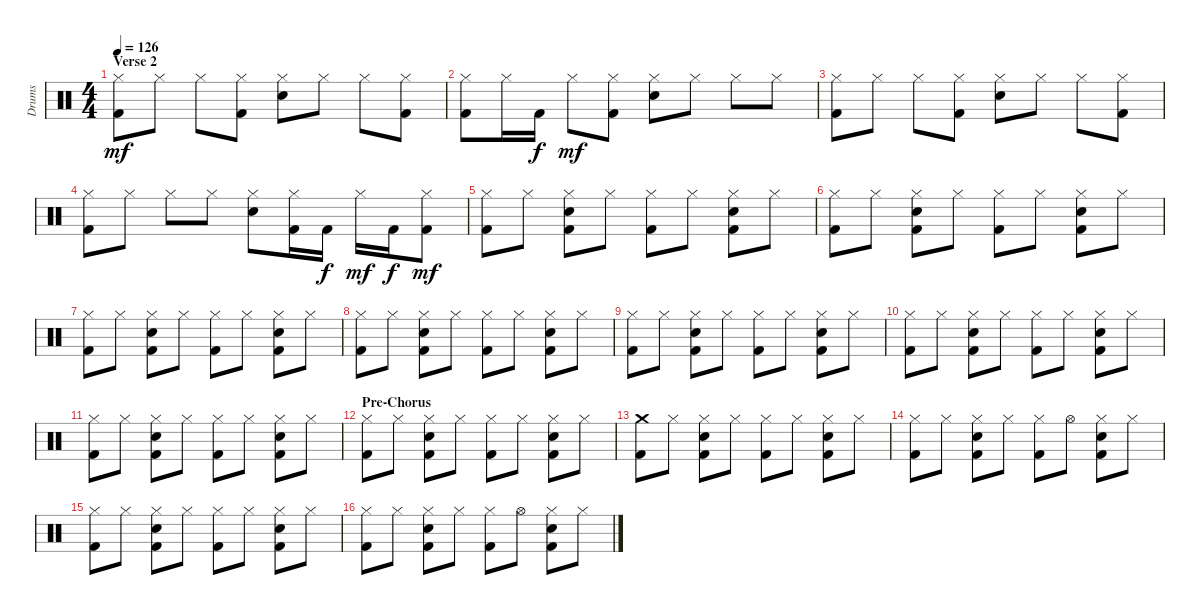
\track ("Drums" "Drums") {instrument percussion}
\staff {score}
\articulation defaults
\ts (4 4)
\section ("" "Verse 2")
\tempo 126
\clef neutral
\ks c
("Hi-Hat (closed)" "Kick (hit) 2").8{dy mf} "Hi-Hat (closed)".8 "Hi-Hat (closed)".8 ("Hi-Hat (closed)" "Kick (hit) 2").8 ("Hi-Hat (closed)" "Snare (hit) 2").8 "Hi-Hat (closed)".8 "Hi-Hat (closed)".8 ("Hi-Hat (closed)" "Kick (hit) 2").8 |
("Hi-Hat (closed)" "Kick (hit) 2").8 "Hi-Hat (closed)".16 "Kick (hit) 2".16{dy f} "Hi-Hat (closed)".8{dy mf} ("Hi-Hat (closed)" "Kick (hit) 2").8 ("Hi-Hat (closed)" "Snare (hit) 2").8 "Hi-Hat (closed)".8 "Hi-Hat (closed)".8 "Hi-Hat (closed)".8 |
("Hi-Hat (closed)" "Kick (hit) 2").8 "Hi-Hat (closed)".8 "Hi-Hat (closed)".8 ("Hi-Hat (closed)" "Kick (hit) 2").8 ("Hi-Hat (closed)" "Snare (hit) 2").8 "Hi-Hat (closed)".8 "Hi-Hat (closed)".8 ("Hi-Hat (closed)" "Kick (hit) 2").8 |
("Hi-Hat (closed)" "Kick (hit) 2").8 "Hi-Hat (closed)".8 "Hi-Hat (closed)".8 "Hi-Hat (closed)".8 ("Hi-Hat (closed)" "Snare (hit) 2").8 ("Hi-Hat (closed)" "Kick (hit) 2").16 "Kick (hit) 2".16{dy f} "Hi-Hat (closed)".16{dy mf} "Kick (hit) 2".16{dy f} ("Hi-Hat (closed)" "Kick (hit) 2").8{dy mf} |
("Hi-Hat (closed)" "Kick (hit) 2").8 "Hi-Hat (closed)".8 ("Hi-Hat (closed)" "Snare (hit) 2" "Kick (hit) 2").8 "Hi-Hat (closed)".8 ("Hi-Hat (closed)" "Kick (hit) 2").8 "Hi-Hat (closed)".8 ("Hi-Hat (closed)" "Snare (hit) 2" "Kick (hit) 2").8 "Hi-Hat (closed)".8 |
("Hi-Hat (closed)" "Kick (hit) 2").8 "Hi-Hat (closed)".8 ("Hi-Hat (closed)" "Snare (hit) 2" "Kick (hit) 2").8 "Hi-Hat (closed)".8 ("Hi-Hat (closed)" "Kick (hit) 2").8 "Hi-Hat (closed)".8 ("Hi-Hat (closed)" "Snare (hit) 2" "Kick (hit) 2").8 "Hi-Hat (closed)".8 |
("Hi-Hat (closed)" "Kick (hit) 2").8 "Hi-Hat (closed)".8 ("Hi-Hat (closed)" "Snare (hit) 2" "Kick (hit) 2").8 "Hi-Hat (closed)".8 ("Hi-Hat (closed)" "Kick (hit) 2").8 "Hi-Hat (closed)".8 ("Hi-Hat (closed)" "Snare (hit) 2" "Kick (hit) 2").8 "Hi-Hat (closed)".8 |
("Hi-Hat (closed)" "Kick (hit) 2").8 "Hi-Hat (closed)".8 ("Hi-Hat (closed)" "Snare (hit) 2" "Kick (hit) 2").8 "Hi-Hat (closed)".8 ("Hi-Hat (closed)" "Kick (hit) 2").8 "Hi-Hat (closed)".8 ("Hi-Hat (closed)" "Snare (hit) 2" "Kick (hit) 2").8 "Hi-Hat (closed)".8 |
("Hi-Hat (closed)" "Kick (hit) 2").8 "Hi-Hat (closed)".8 ("Hi-Hat (closed)" "Snare (hit) 2" "Kick (hit) 2").8 "Hi-Hat (closed)".8 ("Hi-Hat (closed)" "Kick (hit) 2").8 "Hi-Hat (closed)".8 ("Hi-Hat (closed)" "Snare (hit) 2" "Kick (hit) 2").8 "Hi-Hat (closed)".8 |
("Hi-Hat (closed)" "Kick (hit) 2").8 "Hi-Hat (closed)".8 ("Hi-Hat (closed)" "Snare (hit) 2" "Kick (hit) 2").8 "Hi-Hat (closed)".8 ("Hi-Hat (closed)" "Kick (hit) 2").8 "Hi-Hat (closed)".8 ("Hi-Hat (closed)" "Snare (hit) 2" "Kick (hit) 2").8 "Hi-Hat (closed)".8 |
("Hi-Hat (closed)" "Kick (hit) 2").8 "Hi-Hat (closed)".8 ("Hi-Hat (closed)" "Snare (hit) 2" "Kick (hit) 2").8 "Hi-Hat (closed)".8 ("Hi-Hat (closed)" "Kick (hit) 2").8 "Hi-Hat (closed)".8 ("Hi-Hat (closed)" "Snare (hit) 2" "Kick (hit) 2").8 "Hi-Hat (closed)".8 |
\section ("" "Pre-Chorus")
("Hi-Hat (closed)" "Kick (hit) 2").8 "Hi-Hat (closed)".8 ("Hi-Hat (closed)" "Snare (hit) 2" "Kick (hit) 2").8 "Hi-Hat (closed)".8 ("Hi-Hat (closed)" "Kick (hit) 2").8 "Hi-Hat (closed)".8 ("Hi-Hat (closed)" "Snare (hit) 2" "Kick (hit) 2").8 "Hi-Hat (closed)".8 |
("Crash medium (hit)" "Kick (hit) 2").8 "Hi-Hat (closed)".8 ("Hi-Hat (closed)" "Snare (hit) 2" "Kick (hit) 2").8 "Hi-Hat (closed)".8 ("Hi-Hat (closed)" "Kick (hit) 2").8 "Hi-Hat (closed)".8 ("Hi-Hat (closed)" "Snare (hit) 2" "Kick (hit) 2").8 "Hi-Hat (closed)".8 |
("Hi-Hat (closed)" "Kick (hit) 2").8 "Hi-Hat (closed)".8 ("Hi-Hat (closed)" "Snare (hit) 2" "Kick (hit) 2").8 "Hi-Hat (closed)".8 ("Hi-Hat (closed)" "Kick (hit) 2").8 "Hi-Hat (open)".8 ("Hi-Hat (closed)" "Snare (hit) 2" "Kick (hit) 2").8 "Hi-Hat (closed)".8 |
("Hi-Hat (closed)" "Kick (hit) 2").8 "Hi-Hat (closed)".8 ("Hi-Hat (closed)" "Snare (hit) 2" "Kick (hit) 2").8 "Hi-Hat (closed)".8 ("Hi-Hat (closed)" "Kick (hit) 2").8 "Hi-Hat (closed)".8 ("Hi-Hat (closed)" "Snare (hit) 2" "Kick (hit) 2").8 "Hi-Hat (closed)".8 |
("Hi-Hat (closed)" "Kick (hit) 2").8 "Hi-Hat (closed)".8 ("Hi-Hat (closed)" "Snare (hit) 2" "Kick (hit) 2").8 "Hi-Hat (closed)".8 ("Hi-Hat (closed)" "Kick (hit) 2").8 "Hi-Hat (open)".8 ("Hi-Hat (closed)" "Snare (hit) 2" "Kick (hit) 2").8 "Hi-Hat (closed)".8
